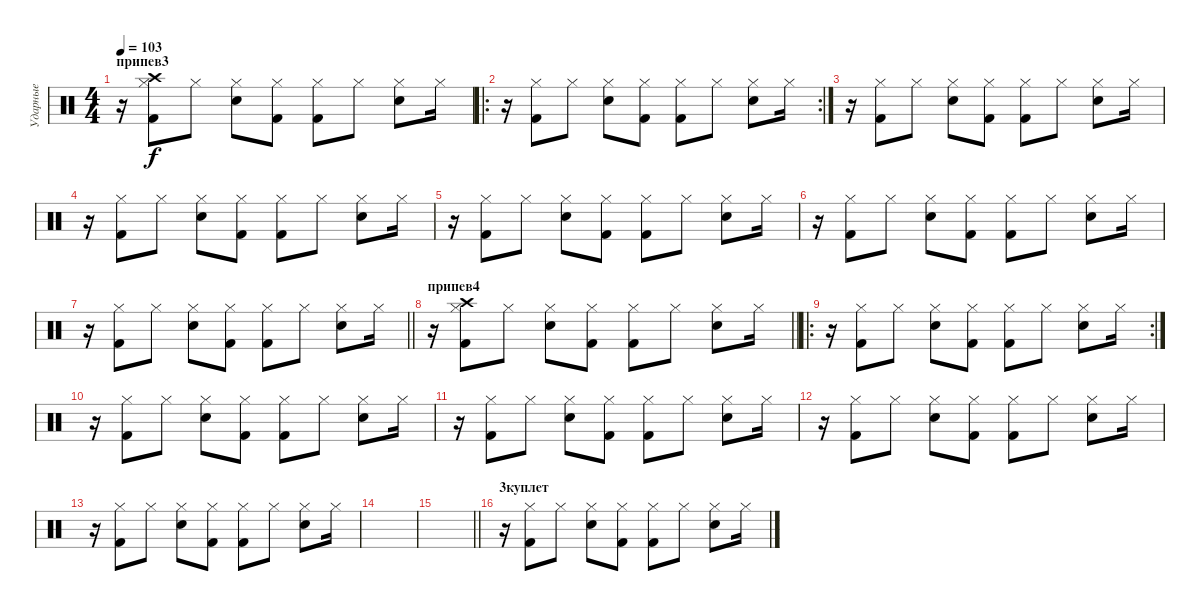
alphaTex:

\track ("Ударные" "Ударные") {instrument percussion}
\staff {score}
\articulation defaults
\ts (4 4)
\section ("" "припев3")
\tempo 103
\clef neutral
\ks c
r.16{dy f} ("Hi-Hat (closed)" "Kick (hit) 2" "Crash high (hit)").8 "Hi-Hat (closed)".8 ("Hi-Hat (closed)" "Electric Snare (hit)").8 ("Hi-Hat (closed)" "Kick (hit) 2").8 ("Hi-Hat (closed)" "Kick (hit) 2").8 "Hi-Hat (closed)".8 ("Hi-Hat (closed)" "Electric Snare (hit)").8 "Hi-Hat (closed)".16 |
\ro
\rc 2
r.16 ("Hi-Hat (closed)" "Kick (hit) 2").8 "Hi-Hat (closed)".8 ("Hi-Hat (closed)" "Electric Snare (hit)").8 ("Hi-Hat (closed)" "Kick (hit) 2").8 ("Hi-Hat (closed)" "Kick (hit) 2").8 "Hi-Hat (closed)".8 ("Hi-Hat (closed)" "Electric Snare (hit)").8 "Hi-Hat (closed)".16 |
r.16 ("Hi-Hat (closed)" "Kick (hit) 2").8 "Hi-Hat (closed)".8 ("Hi-Hat (closed)" "Electric Snare (hit)").8 ("Hi-Hat (closed)" "Kick (hit) 2").8 ("Hi-Hat (closed)" "Kick (hit) 2").8 "Hi-Hat (closed)".8 ("Hi-Hat (closed)" "Electric Snare (hit)").8 "Hi-Hat (closed)".16 |
r.16 ("Hi-Hat (closed)" "Kick (hit) 2").8 "Hi-Hat (closed)".8 ("Hi-Hat (closed)" "Electric Snare (hit)").8 ("Hi-Hat (closed)" "Kick (hit) 2").8 ("Hi-Hat (closed)" "Kick (hit) 2").8 "Hi-Hat (closed)".8 ("Hi-Hat (closed)" "Electric Snare (hit)").8 "Hi-Hat (closed)".16 |
r.16 ("Hi-Hat (closed)" "Kick (hit) 2").8 "Hi-Hat (closed)".8 ("Hi-Hat (closed)" "Electric Snare (hit)").8 ("Hi-Hat (closed)" "Kick (hit) 2").8 ("Hi-Hat (closed)" "Kick (hit) 2").8 "Hi-Hat (closed)".8 ("Hi-Hat (closed)" "Electric Snare (hit)").8 "Hi-Hat (closed)".16 |
r.16 ("Hi-Hat (closed)" "Kick (hit) 2").8 "Hi-Hat (closed)".8 ("Hi-Hat (closed)" "Electric Snare (hit)").8 ("Hi-Hat (closed)" "Kick (hit) 2").8 ("Hi-Hat (closed)" "Kick (hit) 2").8 "Hi-Hat (closed)".8 ("Hi-Hat (closed)" "Electric Snare (hit)").8 "Hi-Hat (closed)".16 |
\barLineRight lightlight
r.16 ("Hi-Hat (closed)" "Kick (hit) 2").8 "Hi-Hat (closed)".8 ("Hi-Hat (closed)" "Electric Snare (hit)").8 ("Hi-Hat (closed)" "Kick (hit) 2").8 ("Hi-Hat (closed)" "Kick (hit) 2").8 "Hi-Hat (closed)".8 ("Hi-Hat (closed)" "Electric Snare (hit)").8 "Hi-Hat (closed)".16 |
\section ("" "припев4")
\barLineRight lightlight
r.16 ("Hi-Hat (closed)" "Kick (hit) 2" "Crash high (hit)").8 "Hi-Hat (closed)".8 ("Hi-Hat (closed)" "Electric Snare (hit)").8 ("Hi-Hat (closed)" "Kick (hit) 2").8 ("Hi-Hat (closed)" "Kick (hit) 2").8 "Hi-Hat (closed)".8 ("Hi-Hat (closed)" "Electric Snare (hit)").8 "Hi-Hat (closed)".16 |
\ro
\rc 2
r.16 ("Hi-Hat (closed)" "Kick (hit) 2").8 "Hi-Hat (closed)".8 ("Hi-Hat (closed)" "Electric Snare (hit)").8 ("Hi-Hat (closed)" "Kick (hit) 2").8 ("Hi-Hat (closed)" "Kick (hit) 2").8 "Hi-Hat (closed)".8 ("Hi-Hat (closed)" "Electric Snare (hit)").8 "Hi-Hat (closed)".16 |
r.16 ("Hi-Hat (closed)" "Kick (hit) 2").8 "Hi-Hat (closed)".8 ("Hi-Hat (closed)" "Electric Snare (hit)").8 ("Hi-Hat (closed)" "Kick (hit) 2").8 ("Hi-Hat (closed)" "Kick (hit) 2").8 "Hi-Hat (closed)".8 ("Hi-Hat (closed)" "Electric Snare (hit)").8 "Hi-Hat (closed)".16 |
r.16 ("Hi-Hat (closed)" "Kick (hit) 2").8 "Hi-Hat (closed)".8 ("Hi-Hat (closed)" "Electric Snare (hit)").8 ("Hi-Hat (closed)" "Kick (hit) 2").8 ("Hi-Hat (closed)" "Kick (hit) 2").8 "Hi-Hat (closed)".8 ("Hi-Hat (closed)" "Electric Snare (hit)").8 "Hi-Hat (closed)".16 |
r.16 ("Hi-Hat (closed)" "Kick (hit) 2").8 "Hi-Hat (closed)".8 ("Hi-Hat (closed)" "Electric Snare (hit)").8 ("Hi-Hat (closed)" "Kick (hit) 2").8 ("Hi-Hat (closed)" "Kick (hit) 2").8 "Hi-Hat (closed)".8 ("Hi-Hat (closed)" "Electric Snare (hit)").8 "Hi-Hat (closed)".16 |
r.16 ("Hi-Hat (closed)" "Kick (hit) 2").8 "Hi-Hat (closed)".8 ("Hi-Hat (closed)" "Electric Snare (hit)").8 ("Hi-Hat (closed)" "Kick (hit) 2").8 ("Hi-Hat (closed)" "Kick (hit) 2").8 "Hi-Hat (closed)".8 ("Hi-Hat (closed)" "Electric Snare (hit)").8 "Hi-Hat (closed)".16 |
|
\barLineRight lightlight
|
\section ("" "3куплет")
r.16 ("Hi-Hat (closed)" "Kick (hit) 2").8 "Hi-Hat (closed)".8 ("Hi-Hat (closed)" "Electric Snare (hit)").8 ("Hi-Hat (closed)" "Kick (hit) 2").8 ("Hi-Hat (closed)" "Kick (hit) 2").8 "Hi-Hat (closed)".8 ("Hi-Hat (closed)" "Electric Snare (hit)").8 "Hi-Hat (closed)".16
